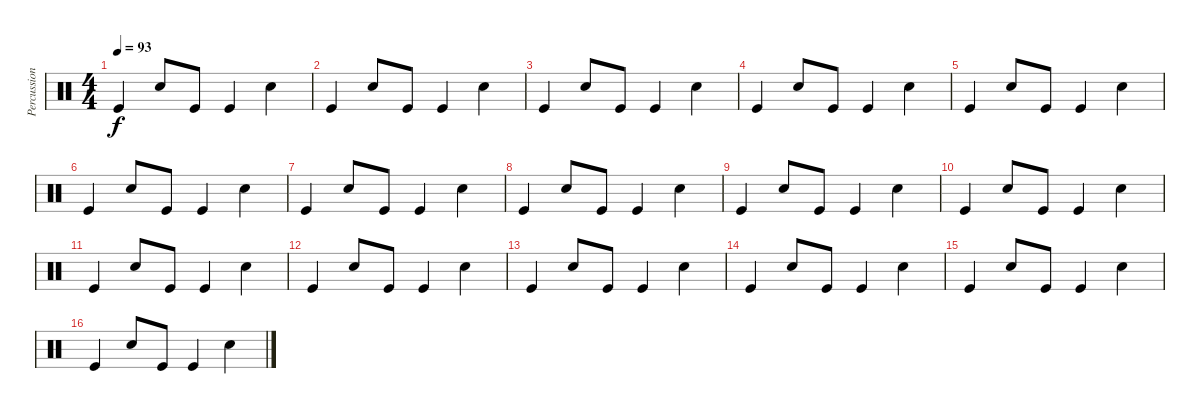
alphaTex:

\track ("Percussion" "Percussion") {instrument percussion}
\staff {score}
\articulation defaults
\ts (4 4)
\tempo 93
\clef neutral
\ks c "Kick (hit)".4{dy f} "Electric Snare (hit)".8 "Kick (hit)".8 "Kick (hit)".4 "Electric Snare (hit)".4
|
"Kick (hit)".4 "Electric Snare (hit)".8 "Kick (hit)".8 "Kick (hit)".4 "Electric Snare (hit)".4 |
"Kick (hit)".4 "Electric Snare (hit)".8 "Kick (hit)".8 "Kick (hit)".4 "Electric Snare (hit)".4 |
"Kick (hit)".4 "Electric Snare (hit)".8 "Kick (hit)".8 "Kick (hit)".4 "Electric Snare (hit)".4 |
"Kick (hit)".4 "Electric Snare (hit)".8 "Kick (hit)".8 "Kick (hit)".4 "Electric Snare (hit)".4 |
"Kick (hit)".4 "Electric Snare (hit)".8 "Kick (hit)".8 "Kick (hit)".4 "Electric Snare (hit)".4 |
"Kick (hit)".4 "Electric Snare (hit)".8 "Kick (hit)".8 "Kick (hit)".4 "Electric Snare (hit)".4 |
"Kick (hit)".4 "Electric Snare (hit)".8 "Kick (hit)".8 "Kick (hit)".4 "Electric Snare (hit)".4 |
"Kick (hit)".4 "Electric Snare (hit)".8 "Kick (hit)".8 "Kick (hit)".4 "Electric Snare (hit)".4 |
"Kick (hit)".4 "Electric Snare (hit)".8 "Kick (hit)".8 "Kick (hit)".4 "Electric Snare (hit)".4 |
"Kick (hit)".4 "Electric Snare (hit)".8 "Kick (hit)".8 "Kick (hit)".4 "Electric Snare (hit)".4 |
"Kick (hit)".4 "Electric Snare (hit)".8 "Kick (hit)".8 "Kick (hit)".4 "Electric Snare (hit)".4 |
"Kick (hit)".4 "Electric Snare (hit)".8 "Kick (hit)".8 "Kick (hit)".4 "Electric Snare (hit)".4 |
"Kick (hit)".4 "Electric Snare (hit)".8 "Kick (hit)".8 "Kick (hit)".4 "Electric Snare (hit)".4 |
"Kick (hit)".4 "Electric Snare (hit)".8 "Kick (hit)".8 "Kick (hit)".4 "Electric Snare (hit)".4 |
"Kick (hit)".4 "Electric Snare (hit)".8 "Kick (hit)".8 "Kick (hit)".4 "Electric Snare (hit)".4
